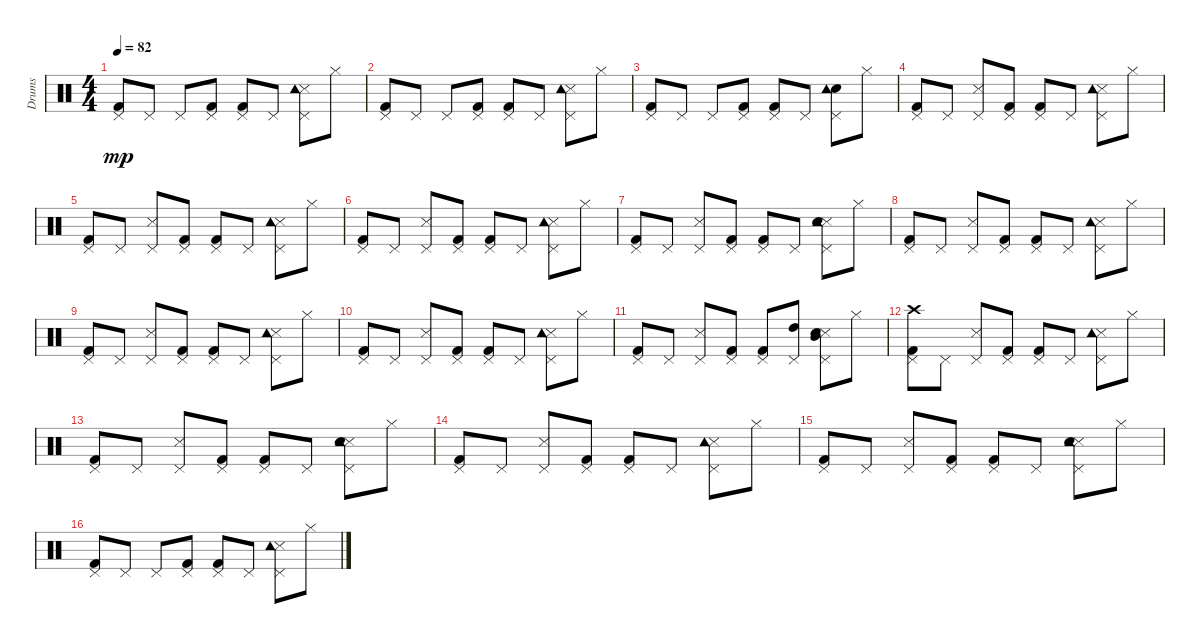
\track ("Drums" "Drums") {instrument percussion}
\staff {score}
\articulation defaults
\ts (4 4)
\tempo 82
\clef neutral
\ks c
("Kick (hit) 2" "Pedal Hi-Hat (hit)").8{dy mp} "Pedal Hi-Hat (hit)".8 "Pedal Hi-Hat (hit)".8 ("Kick (hit) 2" "Pedal Hi-Hat (hit)").8 ("Kick (hit) 2" "Pedal Hi-Hat (hit)").8 "Pedal Hi-Hat (hit)".8 ("Snare (side stick) 3" "Tambourine (hit)" "Pedal Hi-Hat (hit)").8 "Hi-Hat (closed)".8 |
("Kick (hit) 2" "Pedal Hi-Hat (hit)").8 "Pedal Hi-Hat (hit)".8 "Pedal Hi-Hat (hit)".8 ("Kick (hit) 2" "Pedal Hi-Hat (hit)").8 ("Kick (hit) 2" "Pedal Hi-Hat (hit)").8 "Pedal Hi-Hat (hit)".8 ("Snare (side stick) 3" "Tambourine (hit)" "Pedal Hi-Hat (hit)").8 "Hi-Hat (closed)".8 |
("Kick (hit) 2" "Pedal Hi-Hat (hit)").8 "Pedal Hi-Hat (hit)".8 "Pedal Hi-Hat (hit)".8 ("Kick (hit) 2" "Pedal Hi-Hat (hit)").8 ("Kick (hit) 2" "Pedal Hi-Hat (hit)").8 "Pedal Hi-Hat (hit)".8 ("Snare (hit) 2" "Tambourine (hit)" "Pedal Hi-Hat (hit)").8 "Hi-Hat (closed)".8 |
("Kick (hit) 2" "Pedal Hi-Hat (hit)").8 "Pedal Hi-Hat (hit)".8 ("Snare (side stick) 3" "Pedal Hi-Hat (hit)").8 ("Kick (hit) 2" "Pedal Hi-Hat (hit)").8 ("Kick (hit) 2" "Pedal Hi-Hat (hit)").8 "Pedal Hi-Hat (hit)".8 ("Snare (side stick) 3" "Tambourine (hit)" "Pedal Hi-Hat (hit)").8 "Hi-Hat (closed)".8 |
("Kick (hit) 2" "Pedal Hi-Hat (hit)").8 "Pedal Hi-Hat (hit)".8 ("Snare (side stick) 3" "Pedal Hi-Hat (hit)").8 ("Kick (hit) 2" "Pedal Hi-Hat (hit)").8 ("Kick (hit) 2" "Pedal Hi-Hat (hit)").8 "Pedal Hi-Hat (hit)".8 ("Snare (side stick) 3" "Tambourine (hit)" "Pedal Hi-Hat (hit)").8 "Hi-Hat (closed)".8 |
("Kick (hit) 2" "Pedal Hi-Hat (hit)").8 "Pedal Hi-Hat (hit)".8 ("Snare (side stick) 3" "Pedal Hi-Hat (hit)").8 ("Kick (hit) 2" "Pedal Hi-Hat (hit)").8 ("Kick (hit) 2" "Pedal Hi-Hat (hit)").8 "Pedal Hi-Hat (hit)".8 ("Snare (side stick) 3" "Tambourine (hit)" "Pedal Hi-Hat (hit)").8 "Hi-Hat (closed)".8 |
("Kick (hit) 2" "Pedal Hi-Hat (hit)").8 "Pedal Hi-Hat (hit)".8 ("Snare (side stick) 3" "Pedal Hi-Hat (hit)").8 ("Kick (hit) 2" "Pedal Hi-Hat (hit)").8 ("Kick (hit) 2" "Pedal Hi-Hat (hit)").8 "Pedal Hi-Hat (hit)".8 ("Snare (side stick) 3" "Snare (hit) 2" "Tambourine (hit)" "Pedal Hi-Hat (hit)").8 "Hi-Hat (closed)".8 |
("Kick (hit) 2" "Pedal Hi-Hat (hit)").8 "Pedal Hi-Hat (hit)".8 ("Snare (side stick) 3" "Pedal Hi-Hat (hit)").8 ("Kick (hit) 2" "Pedal Hi-Hat (hit)").8 ("Kick (hit) 2" "Pedal Hi-Hat (hit)").8 "Pedal Hi-Hat (hit)".8 ("Snare (side stick) 3" "Tambourine (hit)" "Pedal Hi-Hat (hit)").8 "Hi-Hat (closed)".8 |
("Kick (hit) 2" "Pedal Hi-Hat (hit)").8 "Pedal Hi-Hat (hit)".8 ("Snare (side stick) 3" "Pedal Hi-Hat (hit)").8 ("Kick (hit) 2" "Pedal Hi-Hat (hit)").8 ("Kick (hit) 2" "Pedal Hi-Hat (hit)").8 "Pedal Hi-Hat (hit)".8 ("Snare (side stick) 3" "Tambourine (hit)" "Pedal Hi-Hat (hit)").8 "Hi-Hat (closed)".8 |
("Kick (hit) 2" "Pedal Hi-Hat (hit)").8 "Pedal Hi-Hat (hit)".8 ("Snare (side stick) 3" "Pedal Hi-Hat (hit)").8 ("Kick (hit) 2" "Pedal Hi-Hat (hit)").8 ("Kick (hit) 2" "Pedal Hi-Hat (hit)").8 "Pedal Hi-Hat (hit)".8 ("Snare (side stick) 3" "Tambourine (hit)" "Pedal Hi-Hat (hit)").8 "Hi-Hat (closed)".8 |
("Kick (hit) 2" "Pedal Hi-Hat (hit)").8 "Pedal Hi-Hat (hit)".8 ("Snare (side stick) 3" "Pedal Hi-Hat (hit)").8 ("Kick (hit) 2" "Pedal Hi-Hat (hit)").8 ("Kick (hit) 2" "Pedal Hi-Hat (hit)").8 ("High Tom (hit)" "Pedal Hi-Hat (hit)").8 ("Snare (side stick) 3" "Snare (hit) 2" "Tambourine (hit)" "Mid Tom (hit)" "Pedal Hi-Hat (hit)").8 "Hi-Hat (closed)".8 |
("Kick (hit) 2" "Crash high (hit)" "Pedal Hi-Hat (hit)").8 "Pedal Hi-Hat (hit)".8 ("Snare (side stick) 3" "Pedal Hi-Hat (hit)").8 ("Kick (hit) 2" "Pedal Hi-Hat (hit)").8 ("Kick (hit) 2" "Pedal Hi-Hat (hit)").8 "Pedal Hi-Hat (hit)".8 ("Snare (side stick) 3" "Tambourine (hit)" "Pedal Hi-Hat (hit)").8 "Hi-Hat (closed)".8 |
("Kick (hit) 2" "Pedal Hi-Hat (hit)").8 "Pedal Hi-Hat (hit)".8 ("Snare (side stick) 3" "Pedal Hi-Hat (hit)").8 ("Kick (hit) 2" "Pedal Hi-Hat (hit)").8 ("Kick (hit) 2" "Pedal Hi-Hat (hit)").8 "Pedal Hi-Hat (hit)".8 ("Snare (side stick) 3" "Snare (hit) 2" "Tambourine (hit)" "Pedal Hi-Hat (hit)").8 "Hi-Hat (closed)".8 |
("Kick (hit) 2" "Pedal Hi-Hat (hit)").8 "Pedal Hi-Hat (hit)".8 ("Snare (side stick) 3" "Pedal Hi-Hat (hit)").8 ("Kick (hit) 2" "Pedal Hi-Hat (hit)").8 ("Kick (hit) 2" "Pedal Hi-Hat (hit)").8 "Pedal Hi-Hat (hit)".8 ("Snare (side stick) 3" "Tambourine (hit)" "Pedal Hi-Hat (hit)").8 "Hi-Hat (closed)".8 |
("Kick (hit) 2" "Pedal Hi-Hat (hit)").8 "Pedal Hi-Hat (hit)".8 ("Snare (side stick) 3" "Pedal Hi-Hat (hit)").8 ("Kick (hit) 2" "Pedal Hi-Hat (hit)").8 ("Kick (hit) 2" "Pedal Hi-Hat (hit)").8 "Pedal Hi-Hat (hit)".8 ("Snare (side stick) 3" "Snare (hit) 2" "Tambourine (hit)" "Pedal Hi-Hat (hit)").8 "Hi-Hat (closed)".8 |
("Kick (hit) 2" "Pedal Hi-Hat (hit)").8 "Pedal Hi-Hat (hit)".8 "Pedal Hi-Hat (hit)".8 ("Kick (hit) 2" "Pedal Hi-Hat (hit)").8 ("Kick (hit) 2" "Pedal Hi-Hat (hit)").8 "Pedal Hi-Hat (hit)".8 ("Snare (side stick) 3" "Tambourine (hit)" "Pedal Hi-Hat (hit)").8 "Hi-Hat (closed)".8
